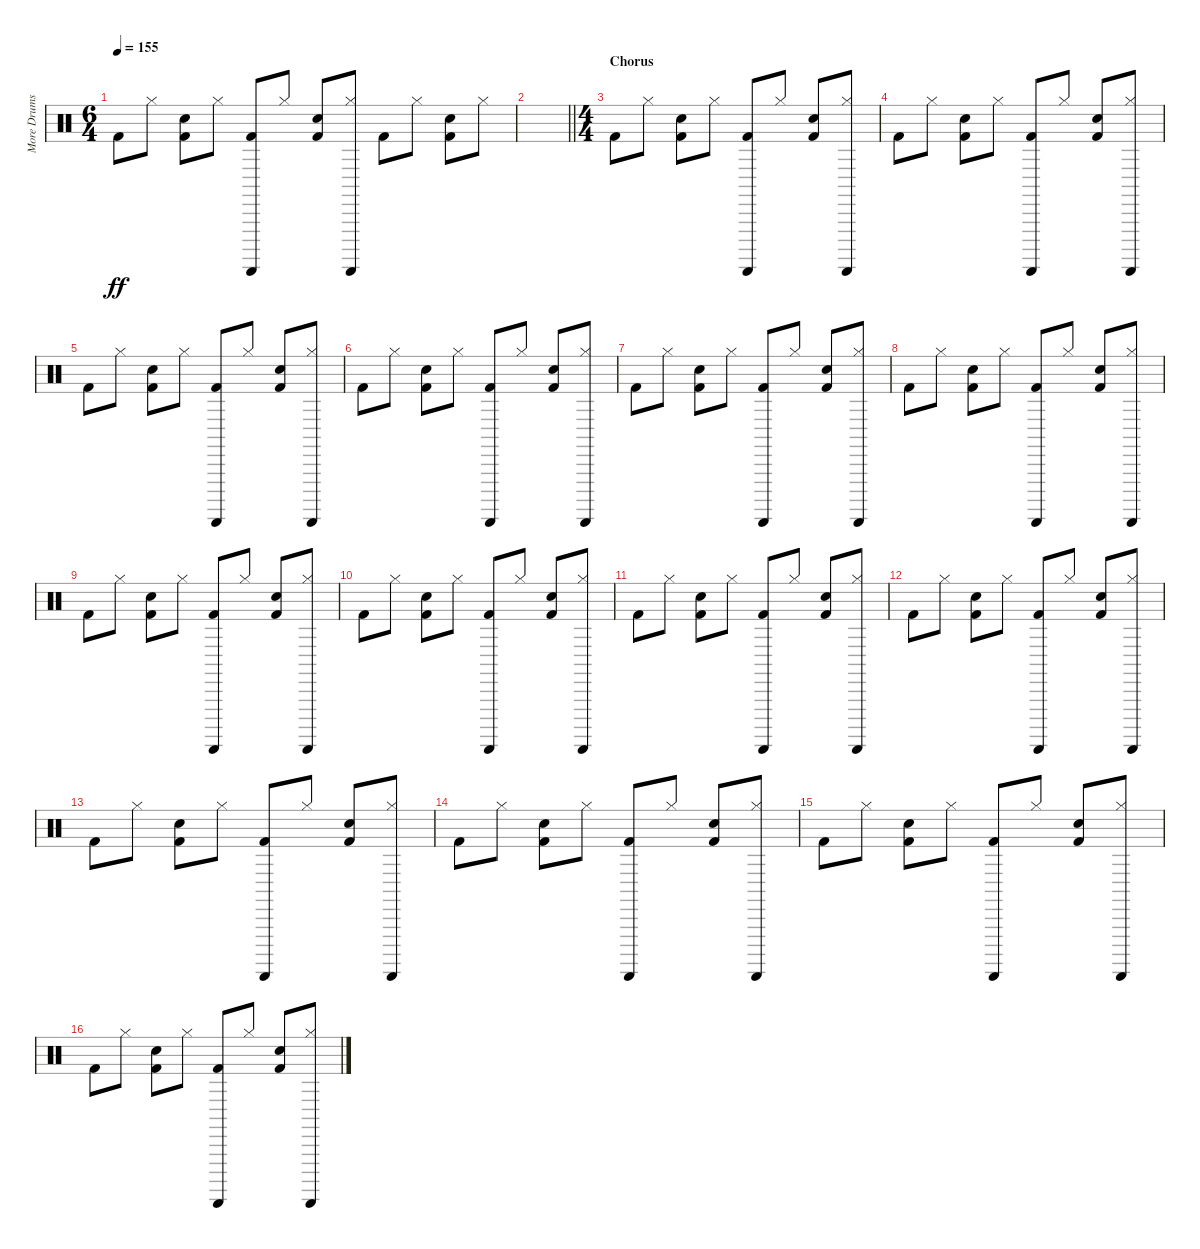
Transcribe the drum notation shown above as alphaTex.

\track ("More Drums" "More Drums") {instrument percussion}
\staff {score}
\articulation defaults
\ts (6 4)
\tempo 155
\clef neutral
\ks c "Kick (hit) 2".8{dy ff} "Hi-Hat (closed)".8
("Kick (hit) 2" "Electric Snare (hit)").8 "Hi-Hat (closed)".8 ("Kick (hit) 2" "Guiro (scrap-return)").8 "Hi-Hat (closed)".8 ("Kick (hit) 2" "Electric Snare (hit)").8 ("Hi-Hat (closed)" "Guiro (scrap-return)").8 "Kick (hit) 2".8 "Hi-Hat (closed)".8 ("Kick (hit) 2" "Electric Snare (hit)").8 "Hi-Hat (closed)".8 |
\barLineRight lightlight
|
\ts (4 4)
\section ("" "Chorus")
"Kick (hit) 2".8 "Hi-Hat (closed)".8 ("Kick (hit) 2" "Electric Snare (hit)").8 "Hi-Hat (closed)".8 ("Kick (hit) 2" "Guiro (scrap-return)").8 "Hi-Hat (closed)".8 ("Kick (hit) 2" "Electric Snare (hit)").8 ("Hi-Hat (closed)" "Guiro (scrap-return)").8 |
"Kick (hit) 2".8 "Hi-Hat (closed)".8 ("Kick (hit) 2" "Electric Snare (hit)").8 "Hi-Hat (closed)".8 ("Kick (hit) 2" "Guiro (scrap-return)").8 "Hi-Hat (closed)".8 ("Kick (hit) 2" "Electric Snare (hit)").8 ("Hi-Hat (closed)" "Guiro (scrap-return)").8 |
"Kick (hit) 2".8 "Hi-Hat (closed)".8 ("Kick (hit) 2" "Electric Snare (hit)").8 "Hi-Hat (closed)".8 ("Kick (hit) 2" "Guiro (scrap-return)").8 "Hi-Hat (closed)".8 ("Kick (hit) 2" "Electric Snare (hit)").8 ("Hi-Hat (closed)" "Guiro (scrap-return)").8 |
"Kick (hit) 2".8 "Hi-Hat (closed)".8 ("Kick (hit) 2" "Electric Snare (hit)").8 "Hi-Hat (closed)".8 ("Kick (hit) 2" "Guiro (scrap-return)").8 "Hi-Hat (closed)".8 ("Kick (hit) 2" "Electric Snare (hit)").8 ("Hi-Hat (closed)" "Guiro (scrap-return)").8 |
"Kick (hit) 2".8 "Hi-Hat (closed)".8 ("Kick (hit) 2" "Electric Snare (hit)").8 "Hi-Hat (closed)".8 ("Kick (hit) 2" "Guiro (scrap-return)").8 "Hi-Hat (closed)".8 ("Kick (hit) 2" "Electric Snare (hit)").8 ("Hi-Hat (closed)" "Guiro (scrap-return)").8 |
"Kick (hit) 2".8 "Hi-Hat (closed)".8 ("Kick (hit) 2" "Electric Snare (hit)").8 "Hi-Hat (closed)".8 ("Kick (hit) 2" "Guiro (scrap-return)").8 "Hi-Hat (closed)".8 ("Kick (hit) 2" "Electric Snare (hit)").8 ("Hi-Hat (closed)" "Guiro (scrap-return)").8 |
"Kick (hit) 2".8 "Hi-Hat (closed)".8 ("Kick (hit) 2" "Electric Snare (hit)").8 "Hi-Hat (closed)".8 ("Kick (hit) 2" "Guiro (scrap-return)").8 "Hi-Hat (closed)".8 ("Kick (hit) 2" "Electric Snare (hit)").8 ("Hi-Hat (closed)" "Guiro (scrap-return)").8 |
"Kick (hit) 2".8 "Hi-Hat (closed)".8 ("Kick (hit) 2" "Electric Snare (hit)").8 "Hi-Hat (closed)".8 ("Kick (hit) 2" "Guiro (scrap-return)").8 "Hi-Hat (closed)".8 ("Kick (hit) 2" "Electric Snare (hit)").8 ("Hi-Hat (closed)" "Guiro (scrap-return)").8 |
"Kick (hit) 2".8 "Hi-Hat (closed)".8 ("Kick (hit) 2" "Electric Snare (hit)").8 "Hi-Hat (closed)".8 ("Kick (hit) 2" "Guiro (scrap-return)").8 "Hi-Hat (closed)".8 ("Kick (hit) 2" "Electric Snare (hit)").8 ("Hi-Hat (closed)" "Guiro (scrap-return)").8 |
"Kick (hit) 2".8 "Hi-Hat (closed)".8 ("Kick (hit) 2" "Electric Snare (hit)").8 "Hi-Hat (closed)".8 ("Kick (hit) 2" "Guiro (scrap-return)").8 "Hi-Hat (closed)".8 ("Kick (hit) 2" "Electric Snare (hit)").8 ("Hi-Hat (closed)" "Guiro (scrap-return)").8 |
"Kick (hit) 2".8 "Hi-Hat (closed)".8 ("Kick (hit) 2" "Electric Snare (hit)").8 "Hi-Hat (closed)".8 ("Kick (hit) 2" "Guiro (scrap-return)").8 "Hi-Hat (closed)".8 ("Kick (hit) 2" "Electric Snare (hit)").8 ("Hi-Hat (closed)" "Guiro (scrap-return)").8 |
"Kick (hit) 2".8 "Hi-Hat (closed)".8 ("Kick (hit) 2" "Electric Snare (hit)").8 "Hi-Hat (closed)".8 ("Kick (hit) 2" "Guiro (scrap-return)").8 "Hi-Hat (closed)".8 ("Kick (hit) 2" "Electric Snare (hit)").8 ("Hi-Hat (closed)" "Guiro (scrap-return)").8 |
"Kick (hit) 2".8 "Hi-Hat (closed)".8 ("Kick (hit) 2" "Electric Snare (hit)").8 "Hi-Hat (closed)".8 ("Kick (hit) 2" "Guiro (scrap-return)").8 "Hi-Hat (closed)".8 ("Kick (hit) 2" "Electric Snare (hit)").8 ("Hi-Hat (closed)" "Guiro (scrap-return)").8 |
"Kick (hit) 2".8 "Hi-Hat (closed)".8 ("Kick (hit) 2" "Electric Snare (hit)").8 "Hi-Hat (closed)".8 ("Kick (hit) 2" "Guiro (scrap-return)").8 "Hi-Hat (closed)".8 ("Kick (hit) 2" "Electric Snare (hit)").8 ("Hi-Hat (closed)" "Guiro (scrap-return)").8
